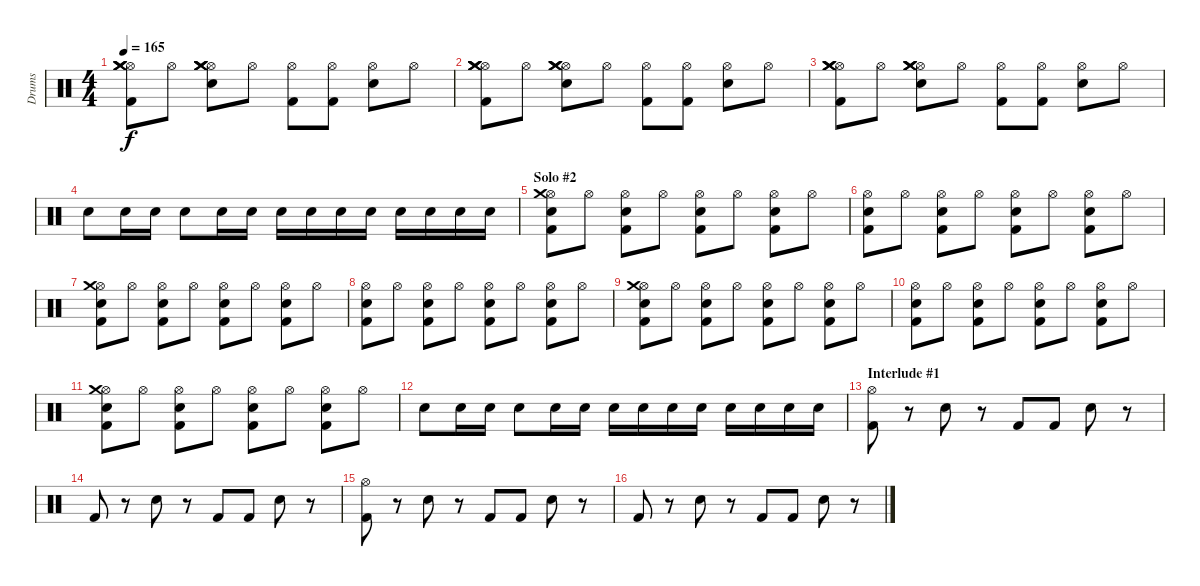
\track ("Drums" "Drums") {instrument percussion}
\staff {score}
\articulation defaults
\ts (4 4)
\tempo 165
\clef neutral
\ks c
("Kick (hit) 2" "Hi-Hat (open)" "Crash medium (hit)" "Crash medium (hit)" "Crash medium (hit)").8{dy f} "Hi-Hat (open)".8 ("Electric Snare (hit)" "Hi-Hat (open)" "Crash medium (hit)" "Crash medium (hit)" "Crash medium (hit)").8 "Hi-Hat (open)".8 ("Kick (hit) 2" "Hi-Hat (open)").8 ("Kick (hit) 2" "Hi-Hat (open)").8 ("Electric Snare (hit)" "Hi-Hat (open)").8 "Hi-Hat (open)".8 |
("Kick (hit) 2" "Hi-Hat (open)" "Crash medium (hit)" "Crash medium (hit)" "Crash medium (hit)").8 "Hi-Hat (open)".8 ("Electric Snare (hit)" "Hi-Hat (open)" "Crash medium (hit)" "Crash medium (hit)" "Crash medium (hit)").8 "Hi-Hat (open)".8 ("Kick (hit) 2" "Hi-Hat (open)").8 ("Kick (hit) 2" "Hi-Hat (open)").8 ("Electric Snare (hit)" "Hi-Hat (open)").8 "Hi-Hat (open)".8 |
("Kick (hit) 2" "Hi-Hat (open)" "Crash medium (hit)" "Crash medium (hit)" "Crash medium (hit)").8 "Hi-Hat (open)".8 ("Electric Snare (hit)" "Hi-Hat (open)" "Crash medium (hit)" "Crash medium (hit)" "Crash medium (hit)").8 "Hi-Hat (open)".8 ("Kick (hit) 2" "Hi-Hat (open)").8 ("Kick (hit) 2" "Hi-Hat (open)").8 ("Electric Snare (hit)" "Hi-Hat (open)").8 "Hi-Hat (open)".8 |
"Electric Snare (hit)".8 "Electric Snare (hit)".16 "Electric Snare (hit)".16 "Electric Snare (hit)".8 "Electric Snare (hit)".16 "Electric Snare (hit)".16 "Electric Snare (hit)".16 "Electric Snare (hit)".16 "Electric Snare (hit)".16 "Electric Snare (hit)".16 "Electric Snare (hit)".16 "Electric Snare (hit)".16 "Electric Snare (hit)".16 "Electric Snare (hit)".16 |
\section ("" "Solo #2")
("Electric Snare (hit)" "Kick (hit) 2" "Hi-Hat (open)" "Crash medium (hit)").8 "Hi-Hat (open)".8 ("Electric Snare (hit)" "Kick (hit) 2" "Hi-Hat (open)").8 "Hi-Hat (open)".8 ("Electric Snare (hit)" "Kick (hit) 2" "Hi-Hat (open)").8 "Hi-Hat (open)".8 ("Electric Snare (hit)" "Kick (hit) 2" "Hi-Hat (open)").8 "Hi-Hat (open)".8 |
("Electric Snare (hit)" "Kick (hit) 2" "Hi-Hat (open)").8 "Hi-Hat (open)".8 ("Electric Snare (hit)" "Kick (hit) 2" "Hi-Hat (open)").8 "Hi-Hat (open)".8 ("Electric Snare (hit)" "Kick (hit) 2" "Hi-Hat (open)").8 "Hi-Hat (open)".8 ("Electric Snare (hit)" "Kick (hit) 2" "Hi-Hat (open)").8 "Hi-Hat (open)".8 |
("Electric Snare (hit)" "Kick (hit) 2" "Hi-Hat (open)" "Crash medium (hit)").8 "Hi-Hat (open)".8 ("Electric Snare (hit)" "Kick (hit) 2" "Hi-Hat (open)").8 "Hi-Hat (open)".8 ("Electric Snare (hit)" "Kick (hit) 2" "Hi-Hat (open)").8 "Hi-Hat (open)".8 ("Electric Snare (hit)" "Kick (hit) 2" "Hi-Hat (open)").8 "Hi-Hat (open)".8 |
("Electric Snare (hit)" "Kick (hit) 2" "Hi-Hat (open)").8 "Hi-Hat (open)".8 ("Electric Snare (hit)" "Kick (hit) 2" "Hi-Hat (open)").8 "Hi-Hat (open)".8 ("Electric Snare (hit)" "Kick (hit) 2" "Hi-Hat (open)").8 "Hi-Hat (open)".8 ("Electric Snare (hit)" "Kick (hit) 2" "Hi-Hat (open)").8 "Hi-Hat (open)".8 |
("Electric Snare (hit)" "Kick (hit) 2" "Hi-Hat (open)" "Crash medium (hit)").8 "Hi-Hat (open)".8 ("Electric Snare (hit)" "Kick (hit) 2" "Hi-Hat (open)").8 "Hi-Hat (open)".8 ("Electric Snare (hit)" "Kick (hit) 2" "Hi-Hat (open)").8 "Hi-Hat (open)".8 ("Electric Snare (hit)" "Kick (hit) 2" "Hi-Hat (open)").8 "Hi-Hat (open)".8 |
("Electric Snare (hit)" "Kick (hit) 2" "Hi-Hat (open)").8 "Hi-Hat (open)".8 ("Electric Snare (hit)" "Kick (hit) 2" "Hi-Hat (open)").8 "Hi-Hat (open)".8 ("Electric Snare (hit)" "Kick (hit) 2" "Hi-Hat (open)").8 "Hi-Hat (open)".8 ("Electric Snare (hit)" "Kick (hit) 2" "Hi-Hat (open)").8 "Hi-Hat (open)".8 |
("Electric Snare (hit)" "Kick (hit) 2" "Hi-Hat (open)" "Crash medium (hit)").8 "Hi-Hat (open)".8 ("Electric Snare (hit)" "Kick (hit) 2" "Hi-Hat (open)").8 "Hi-Hat (open)".8 ("Electric Snare (hit)" "Kick (hit) 2" "Hi-Hat (open)").8 "Hi-Hat (open)".8 ("Electric Snare (hit)" "Kick (hit) 2" "Hi-Hat (open)").8 "Hi-Hat (open)".8 |
"Electric Snare (hit)".8 "Electric Snare (hit)".16 "Electric Snare (hit)".16 "Electric Snare (hit)".8 "Electric Snare (hit)".16 "Electric Snare (hit)".16 "Electric Snare (hit)".16 "Electric Snare (hit)".16 "Electric Snare (hit)".16 "Electric Snare (hit)".16 "Electric Snare (hit)".16 "Electric Snare (hit)".16 "Electric Snare (hit)".16 "Electric Snare (hit)".16 |
\section ("" "Interlude #1")
("Kick (hit) 2" "Hi-Hat (open)").8 r.8 "Electric Snare (hit)".8 r.8 "Kick (hit) 2".8 "Kick (hit) 2".8 "Electric Snare (hit)".8 r.8 |
"Kick (hit) 2".8 r.8 "Electric Snare (hit)".8 r.8 "Kick (hit) 2".8 "Kick (hit) 2".8 "Electric Snare (hit)".8 r.8 |
("Kick (hit) 2" "Hi-Hat (open)").8 r.8 "Electric Snare (hit)".8 r.8 "Kick (hit) 2".8 "Kick (hit) 2".8 "Electric Snare (hit)".8 r.8 |
"Kick (hit) 2".8 r.8 "Electric Snare (hit)".8 r.8 "Kick (hit) 2".8 "Kick (hit) 2".8 "Electric Snare (hit)".8 r.8
